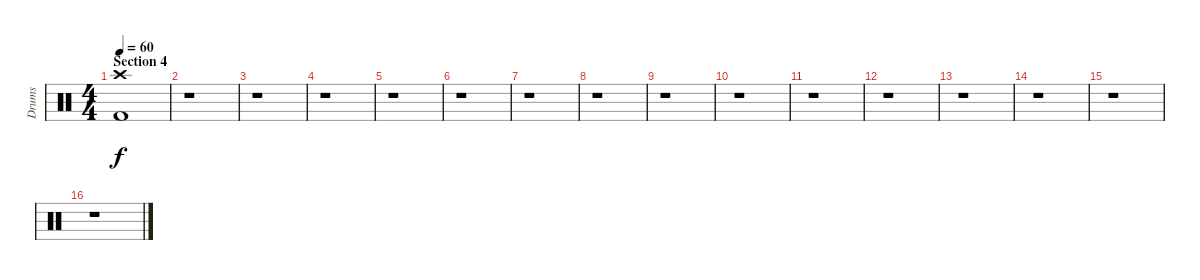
\track ("Drums" "Drums") {instrument percussion}
\staff {score}
\articulation defaults
\ts (4 4)
\section ("" "Section 4")
\tempo 60
\clef neutral
\ks c
("Crash high (hit)" "Kick (hit) 2").1{dy f} |
r.1 |
r.1 |
r.1 |
r.1 |
r.1 |
r.1 |
r.1 |
r.1 |
r.1 |
r.1 |
r.1 |
r.1 |
r.1 |
r.1 |
r.1
